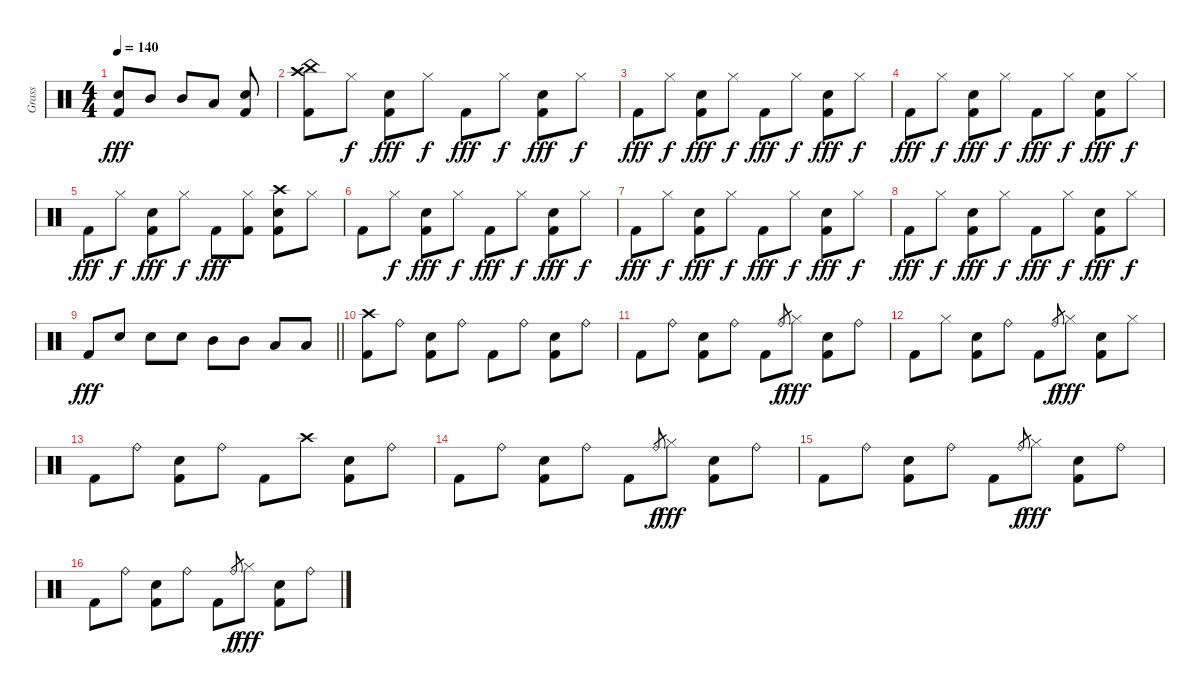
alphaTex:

\track ("Grass" "Grass") {instrument percussion}
\staff {score}
\articulation defaults
\ts (4 4)
\tempo 140
\clef neutral
\ks c
("Kick (hit) 2" "Electric Snare (hit)").8{dy fff} "Mid Tom (hit)".8 "Mid Tom (hit)".8 "Low Tom (hit)".8 ("Kick (hit) 2" "Electric Snare (hit)").8 |
("Kick (hit) 2" "China (hit)" "Crash high (hit)").8 "Hi-Hat (closed)".8{dy f} ("Kick (hit) 2" "Electric Snare (hit)").8{dy fff} "Hi-Hat (closed)".8{dy f} "Kick (hit) 2".8{dy fff} "Hi-Hat (closed)".8{dy f} ("Kick (hit) 2" "Electric Snare (hit)").8{dy fff} "Hi-Hat (closed)".8{dy f} |
"Kick (hit) 2".8{dy fff} "Hi-Hat (closed)".8{dy f} ("Kick (hit) 2" "Electric Snare (hit)").8{dy fff} "Hi-Hat (closed)".8{dy f} "Kick (hit) 2".8{dy fff} "Hi-Hat (closed)".8{dy f} ("Kick (hit) 2" "Electric Snare (hit)").8{dy fff} "Hi-Hat (closed)".8{dy f} |
"Kick (hit) 2".8{dy fff} "Hi-Hat (closed)".8{dy f} ("Kick (hit) 2" "Electric Snare (hit)").8{dy fff} "Hi-Hat (closed)".8{dy f} "Kick (hit) 2".8{dy fff} "Hi-Hat (closed)".8{dy f} ("Kick (hit) 2" "Electric Snare (hit)").8{dy fff} "Hi-Hat (closed)".8{dy f} |
"Kick (hit) 2".8{dy fff} "Hi-Hat (closed)".8{dy f} ("Kick (hit) 2" "Electric Snare (hit)").8{dy fff} "Hi-Hat (closed)".8{dy f} "Kick (hit) 2".8{dy fff} ("Kick (hit) 2" "Hi-Hat (closed)").8 ("Kick (hit) 2" "Electric Snare (hit)" "Crash high (hit)").8 "Hi-Hat (closed)".8 |
"Kick (hit) 2".8 "Hi-Hat (closed)".8{dy f} ("Kick (hit) 2" "Electric Snare (hit)").8{dy fff} "Hi-Hat (closed)".8{dy f} "Kick (hit) 2".8{dy fff} "Hi-Hat (closed)".8{dy f} ("Kick (hit) 2" "Electric Snare (hit)").8{dy fff} "Hi-Hat (closed)".8{dy f} |
"Kick (hit) 2".8{dy fff} "Hi-Hat (closed)".8{dy f} ("Kick (hit) 2" "Electric Snare (hit)").8{dy fff} "Hi-Hat (closed)".8{dy f} "Kick (hit) 2".8{dy fff} "Hi-Hat (closed)".8{dy f} ("Kick (hit) 2" "Electric Snare (hit)").8{dy fff} "Hi-Hat (closed)".8{dy f} |
"Kick (hit) 2".8{dy fff} "Hi-Hat (closed)".8{dy f} ("Kick (hit) 2" "Electric Snare (hit)").8{dy fff} "Hi-Hat (closed)".8{dy f} "Kick (hit) 2".8{dy fff} "Hi-Hat (closed)".8{dy f} ("Kick (hit) 2" "Electric Snare (hit)").8{dy fff} "Hi-Hat (closed)".8{dy f} |
\barLineRight lightlight "Kick (hit) 2".8{dy fff} "Electric Snare (hit)".8 "Electric Snare (hit)".8 "Electric Snare (hit)".8 "Mid Tom (hit)".8 "Mid Tom (hit)".8 "Low Tom (hit)".8 "Low Tom (hit)".8
|
("Kick (hit) 2" "Crash high (hit)").8 "Ride (bell)".8 ("Kick (hit) 2" "Electric Snare (hit)").8 "Ride (bell)".8 "Kick (hit) 2".8 "Ride (bell)".8 ("Kick (hit) 2" "Electric Snare (hit)").8 "Ride (bell)".8 |
"Kick (hit) 2".8 "Ride (bell)".8 ("Kick (hit) 2" "Electric Snare (hit)").8 "Ride (bell)".8 "Kick (hit) 2".8 "Ride (bell)".8{gr dy f} "Hi-Hat (closed)".8{dy fff} ("Kick (hit) 2" "Electric Snare (hit)").8 "Ride (bell)".8 |
"Kick (hit) 2".8 "Hi-Hat (closed)".8 ("Kick (hit) 2" "Electric Snare (hit)").8 "Ride (bell)".8 "Kick (hit) 2".8 "Ride (bell)".8{gr dy f} "Hi-Hat (closed)".8{dy fff} ("Kick (hit) 2" "Electric Snare (hit)").8 "Hi-Hat (closed)".8 |
"Kick (hit) 2".8 "Ride (bell)".8 ("Kick (hit) 2" "Electric Snare (hit)").8 "Ride (bell)".8 "Kick (hit) 2".8 "Crash high (hit)".8 ("Kick (hit) 2" "Electric Snare (hit)").8 "Ride (bell)".8 |
"Kick (hit) 2".8 "Ride (bell)".8 ("Kick (hit) 2" "Electric Snare (hit)").8 "Ride (bell)".8 "Kick (hit) 2".8 "Ride (bell)".8{gr dy f} "Hi-Hat (closed)".8{dy fff} ("Kick (hit) 2" "Electric Snare (hit)").8 "Ride (bell)".8 |
"Kick (hit) 2".8 "Ride (bell)".8 ("Kick (hit) 2" "Electric Snare (hit)").8 "Ride (bell)".8 "Kick (hit) 2".8 "Ride (bell)".8{gr dy f} "Hi-Hat (closed)".8{dy fff} ("Kick (hit) 2" "Electric Snare (hit)").8 "Ride (bell)".8 |
"Kick (hit) 2".8 "Ride (bell)".8 ("Kick (hit) 2" "Electric Snare (hit)").8 "Ride (bell)".8 "Kick (hit) 2".8 "Ride (bell)".8{gr dy f} "Hi-Hat (closed)".8{dy fff} ("Kick (hit) 2" "Electric Snare (hit)").8 "Ride (bell)".8
